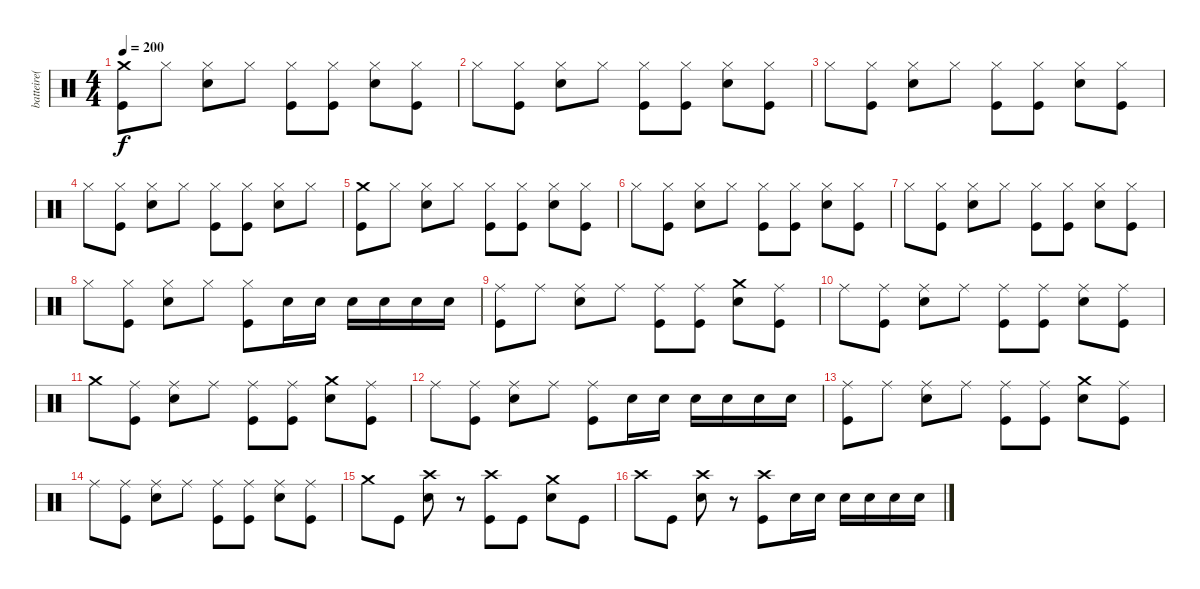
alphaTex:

\track ("batteire( Danny Alaro )" "batteire( ") {instrument percussion}
\staff {score}
\articulation defaults
\ts (4 4)
\tempo 200
\clef neutral
\ks c
("Crash medium (hit)" "Kick (hit)").8{dy f} "Hi-Hat (closed)".8 ("Hi-Hat (closed)" "Snare (hit) 2").8 "Hi-Hat (closed)".8 ("Hi-Hat (closed)" "Kick (hit)").8 ("Hi-Hat (closed)" "Kick (hit)").8 ("Hi-Hat (closed)" "Snare (hit) 2").8 ("Hi-Hat (closed)" "Kick (hit)").8 |
"Hi-Hat (closed)".8 ("Hi-Hat (closed)" "Kick (hit)").8 ("Hi-Hat (closed)" "Snare (hit) 2").8 "Hi-Hat (closed)".8 ("Hi-Hat (closed)" "Kick (hit)").8 ("Hi-Hat (closed)" "Kick (hit)").8 ("Hi-Hat (closed)" "Snare (hit) 2").8 ("Hi-Hat (closed)" "Kick (hit)").8 |
"Hi-Hat (closed)".8 ("Hi-Hat (closed)" "Kick (hit)").8 ("Hi-Hat (closed)" "Snare (hit) 2").8 "Hi-Hat (closed)".8 ("Hi-Hat (closed)" "Kick (hit)").8 ("Hi-Hat (closed)" "Kick (hit)").8 ("Hi-Hat (closed)" "Snare (hit) 2").8 ("Hi-Hat (closed)" "Kick (hit)").8 |
"Hi-Hat (closed)".8 ("Hi-Hat (closed)" "Kick (hit)").8 ("Hi-Hat (closed)" "Snare (hit) 2").8 "Hi-Hat (closed)".8 ("Hi-Hat (closed)" "Kick (hit)").8 ("Hi-Hat (closed)" "Kick (hit)").8 ("Hi-Hat (closed)" "Snare (hit) 2").8 "Hi-Hat (closed)".8 |
("Crash medium (hit)" "Kick (hit)").8 "Hi-Hat (closed)".8 ("Hi-Hat (closed)" "Snare (hit) 2").8 "Hi-Hat (closed)".8 ("Hi-Hat (closed)" "Kick (hit)").8 ("Hi-Hat (closed)" "Kick (hit)").8 ("Hi-Hat (closed)" "Snare (hit) 2").8 ("Hi-Hat (closed)" "Kick (hit)").8 |
"Hi-Hat (closed)".8 ("Hi-Hat (closed)" "Kick (hit)").8 ("Hi-Hat (closed)" "Snare (hit) 2").8 "Hi-Hat (closed)".8 ("Hi-Hat (closed)" "Kick (hit)").8 ("Hi-Hat (closed)" "Kick (hit)").8 ("Hi-Hat (closed)" "Snare (hit) 2").8 ("Hi-Hat (closed)" "Kick (hit)").8 |
"Hi-Hat (closed)".8 ("Hi-Hat (closed)" "Kick (hit)").8 ("Hi-Hat (closed)" "Snare (hit) 2").8 "Hi-Hat (closed)".8 ("Hi-Hat (closed)" "Kick (hit)").8 ("Hi-Hat (closed)" "Kick (hit)").8 ("Hi-Hat (closed)" "Snare (hit) 2").8 ("Hi-Hat (closed)" "Kick (hit)").8 |
"Hi-Hat (closed)".8 ("Hi-Hat (closed)" "Kick (hit)").8 ("Hi-Hat (closed)" "Snare (hit) 2").8 "Hi-Hat (closed)".8 ("Hi-Hat (closed)" "Kick (hit)").8 "Snare (hit) 2".16 "Snare (hit) 2".16 "Snare (hit) 2".16 "Snare (hit) 2".16 "Snare (hit) 2".16 "Snare (hit) 2".16 |
("Ride (middle)" "Kick (hit)").8 "Ride (middle)".8 ("Ride (middle)" "Snare (hit) 2").8 "Ride (middle)".8 ("Ride (middle)" "Kick (hit)").8 ("Ride (middle)" "Kick (hit)").8 ("Crash medium (hit)" "Snare (hit) 2").8 ("Ride (middle)" "Kick (hit)").8 |
"Ride (middle)".8 ("Ride (middle)" "Kick (hit)").8 ("Ride (middle)" "Snare (hit) 2").8 "Ride (middle)".8 ("Ride (middle)" "Kick (hit)").8 ("Ride (middle)" "Kick (hit)").8 ("Ride (middle)" "Snare (hit) 2").8 ("Ride (middle)" "Kick (hit)").8 |
"Crash medium (hit)".8 ("Ride (middle)" "Kick (hit)").8 ("Ride (middle)" "Snare (hit) 2").8 "Ride (middle)".8 ("Ride (middle)" "Kick (hit)").8 ("Ride (middle)" "Kick (hit)").8 ("Crash medium (hit)" "Snare (hit) 2").8 ("Ride (middle)" "Kick (hit)").8 |
"Ride (middle)".8 ("Ride (middle)" "Kick (hit)").8 ("Ride (middle)" "Snare (hit) 2").8 "Ride (middle)".8 ("Ride (middle)" "Kick (hit)").8 "Snare (hit) 2".16 "Snare (hit) 2".16 "Snare (hit) 2".16 "Snare (hit) 2".16 "Snare (hit) 2".16 "Snare (hit) 2".16 |
("Ride (middle)" "Kick (hit)").8 "Ride (middle)".8 ("Ride (middle)" "Snare (hit) 2").8 "Ride (middle)".8 ("Ride (middle)" "Kick (hit)").8 ("Ride (middle)" "Kick (hit)").8 ("Crash medium (hit)" "Snare (hit) 2").8 ("Ride (middle)" "Kick (hit)").8 |
"Ride (middle)".8 ("Ride (middle)" "Kick (hit)").8 ("Ride (middle)" "Snare (hit) 2").8 "Ride (middle)".8 ("Ride (middle)" "Kick (hit)").8 ("Ride (middle)" "Kick (hit)").8 ("Ride (middle)" "Snare (hit) 2").8 ("Ride (middle)" "Kick (hit)").8 |
"Crash medium (hit)".8 "Kick (hit)".8 ("Crash high (hit)" "Snare (hit) 2").8 r.8 ("Crash high (hit)" "Kick (hit)").8 "Kick (hit)".8 ("Crash medium (hit)" "Snare (hit) 2").8 "Kick (hit)".8 |
"Crash high (hit)".8 "Kick (hit)".8 ("Crash high (hit)" "Snare (hit) 2").8 r.8 ("Crash high (hit)" "Kick (hit)").8 "Snare (hit) 2".16 "Snare (hit) 2".16 "Snare (hit) 2".16 "Snare (hit) 2".16 "Snare (hit) 2".16 "Snare (hit) 2".16
